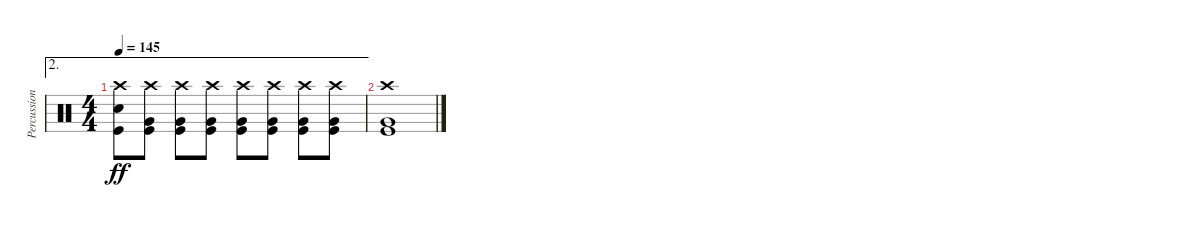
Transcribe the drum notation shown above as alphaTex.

\track ("Percussion" "Percussion") {instrument percussion}
\staff {score}
\articulation defaults
\ae 2
\ts (4 4)
\tempo 145
\clef neutral
\ks c
("Crash high (hit)" "Electric Snare (hit)" "Kick (hit)").8{dy ff} ("Crash high (hit)" "Very Low Tom (hit)" "Kick (hit)").8 ("Crash high (hit)" "Very Low Tom (hit)" "Kick (hit)").8 ("Crash high (hit)" "Very Low Tom (hit)" "Kick (hit)").8 ("Crash high (hit)" "Very Low Tom (hit)" "Kick (hit)").8 ("Crash high (hit)" "Very Low Tom (hit)" "Kick (hit)").8 ("Crash high (hit)" "Very Low Tom (hit)" "Kick (hit)").8 ("Crash high (hit)" "Very Low Tom (hit)" "Kick (hit)").8 |
("Crash high (hit)" "Very Low Tom (hit)" "Kick (hit)").1
